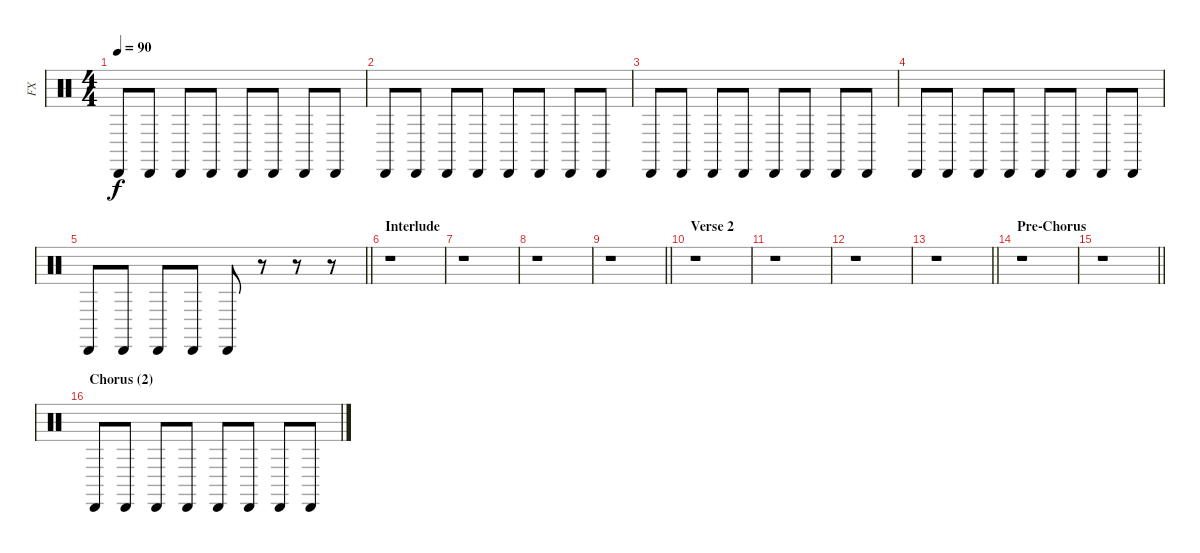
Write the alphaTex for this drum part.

\track ("FX" "FX") {instrument percussion}
\staff {score}
\articulation defaults
\ts (4 4)
\tempo 90
\clef neutral
\ks c "Cabasa (hit)".8{dy f} "Cabasa (hit)".8 "Cabasa (hit)".8 "Cabasa (hit)".8 "Cabasa (hit)".8 "Cabasa (hit)".8 "Cabasa (hit)".8 "Cabasa (hit)".8
|
"Cabasa (hit)".8 "Cabasa (hit)".8 "Cabasa (hit)".8 "Cabasa (hit)".8 "Cabasa (hit)".8 "Cabasa (hit)".8 "Cabasa (hit)".8 "Cabasa (hit)".8 |
"Cabasa (hit)".8 "Cabasa (hit)".8 "Cabasa (hit)".8 "Cabasa (hit)".8 "Cabasa (hit)".8 "Cabasa (hit)".8 "Cabasa (hit)".8 "Cabasa (hit)".8 |
"Cabasa (hit)".8 "Cabasa (hit)".8 "Cabasa (hit)".8 "Cabasa (hit)".8 "Cabasa (hit)".8 "Cabasa (hit)".8 "Cabasa (hit)".8 "Cabasa (hit)".8 |
\barLineRight lightlight "Cabasa (hit)".8 "Cabasa (hit)".8 "Cabasa (hit)".8 "Cabasa (hit)".8 "Cabasa (hit)".8
r.8 r.8 r.8 |
\section ("" "Interlude")
r.1 |
r.1 |
r.1 |
\barLineRight lightlight
r.1 |
\section ("" "Verse 2")
r.1 |
r.1 |
r.1 |
\barLineRight lightlight
r.1 |
\section ("" "Pre-Chorus")
r.1 |
\barLineRight lightlight
r.1 |
\section ("" "Chorus (2)")
"Cabasa (hit)".8 "Cabasa (hit)".8 "Cabasa (hit)".8 "Cabasa (hit)".8 "Cabasa (hit)".8 "Cabasa (hit)".8 "Cabasa (hit)".8 "Cabasa (hit)".8
